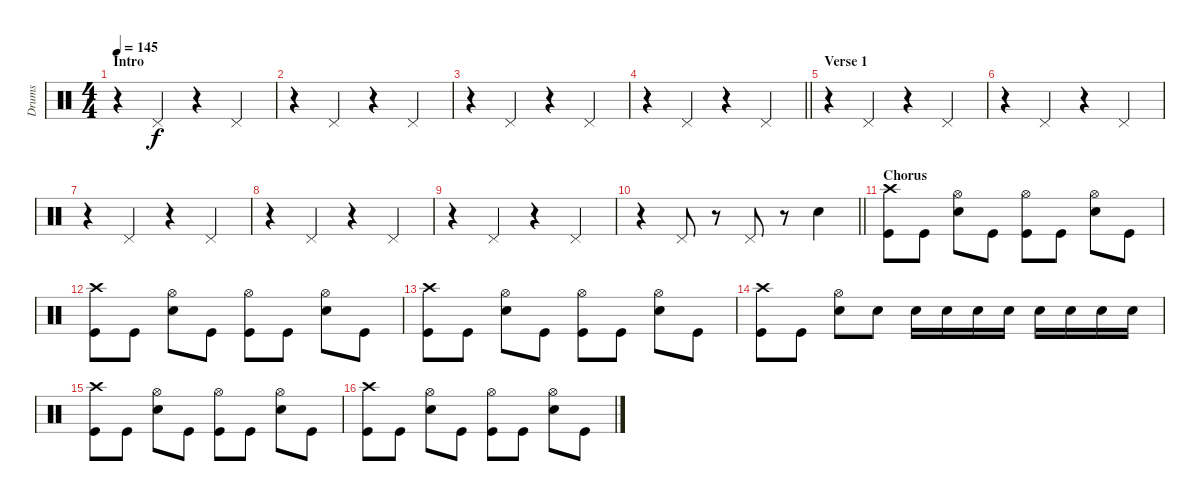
\track ("Drums" "Drums") {instrument percussion}
\staff {score}
\articulation defaults
\ts (4 4)
\section ("" "Intro")
\tempo 145
\clef neutral
\ks c
r.4{dy f} "Pedal Hi-Hat (hit)".4 r.4 "Pedal Hi-Hat (hit)".4 |
r.4 "Pedal Hi-Hat (hit)".4 r.4 "Pedal Hi-Hat (hit)".4 |
r.4 "Pedal Hi-Hat (hit)".4 r.4 "Pedal Hi-Hat (hit)".4 |
\barLineRight lightlight
r.4 "Pedal Hi-Hat (hit)".4 r.4 "Pedal Hi-Hat (hit)".4 |
\section ("" "Verse 1")
r.4 "Pedal Hi-Hat (hit)".4 r.4 "Pedal Hi-Hat (hit)".4 |
r.4 "Pedal Hi-Hat (hit)".4 r.4 "Pedal Hi-Hat (hit)".4 |
r.4 "Pedal Hi-Hat (hit)".4 r.4 "Pedal Hi-Hat (hit)".4 |
r.4 "Pedal Hi-Hat (hit)".4 r.4 "Pedal Hi-Hat (hit)".4 |
r.4 "Pedal Hi-Hat (hit)".4 r.4 "Pedal Hi-Hat (hit)".4 |
\barLineRight lightlight
r.4 "Pedal Hi-Hat (hit)".8 r.8 "Pedal Hi-Hat (hit)".8 r.8 "Snare (hit) 2".4 |
\section ("" "Chorus")
("Crash high (hit)" "Kick (hit)").8 "Kick (hit)".8 ("Hi-Hat (open)" "Snare (hit) 2").8 "Kick (hit)".8 ("Hi-Hat (open)" "Kick (hit)").8 "Kick (hit)".8 ("Hi-Hat (open)" "Snare (hit) 2").8 "Kick (hit)".8 |
("Crash high (hit)" "Kick (hit)").8 "Kick (hit)".8 ("Hi-Hat (open)" "Snare (hit) 2").8 "Kick (hit)".8 ("Hi-Hat (open)" "Kick (hit)").8 "Kick (hit)".8 ("Hi-Hat (open)" "Snare (hit) 2").8 "Kick (hit)".8 |
("Crash high (hit)" "Kick (hit)").8 "Kick (hit)".8 ("Hi-Hat (open)" "Snare (hit) 2").8 "Kick (hit)".8 ("Hi-Hat (open)" "Kick (hit)").8 "Kick (hit)".8 ("Hi-Hat (open)" "Snare (hit) 2").8 "Kick (hit)".8 |
("Crash high (hit)" "Kick (hit)").8 "Kick (hit)".8 ("Hi-Hat (open)" "Snare (hit) 2").8 "Snare (hit) 2".8 "Snare (hit) 2".16 "Snare (hit) 2".16 "Snare (hit) 2".16 "Snare (hit) 2".16 "Snare (hit) 2".16 "Snare (hit) 2".16 "Snare (hit) 2".16 "Snare (hit) 2".16 |
("Crash high (hit)" "Kick (hit)").8 "Kick (hit)".8 ("Hi-Hat (open)" "Snare (hit) 2").8 "Kick (hit)".8 ("Hi-Hat (open)" "Kick (hit)").8 "Kick (hit)".8 ("Hi-Hat (open)" "Snare (hit) 2").8 "Kick (hit)".8 |
("Crash high (hit)" "Kick (hit)").8 "Kick (hit)".8 ("Hi-Hat (open)" "Snare (hit) 2").8 "Kick (hit)".8 ("Hi-Hat (open)" "Kick (hit)").8 "Kick (hit)".8 ("Hi-Hat (open)" "Snare (hit) 2").8 "Kick (hit)".8
